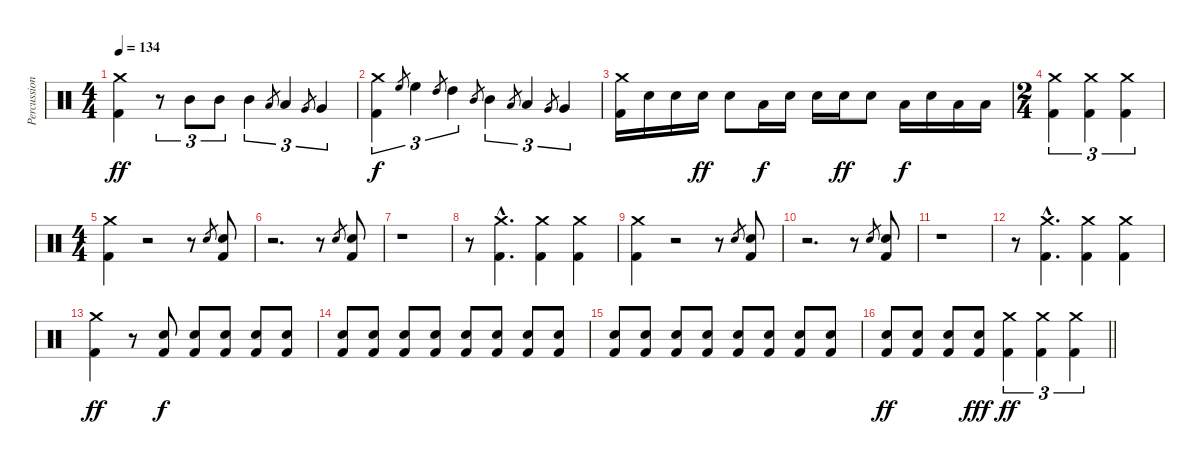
\track ("Percussion" "Percussion") {instrument percussion}
\staff {score}
\articulation defaults
\ts (4 4)
\tempo 134
\clef neutral
\ks c
("Kick (hit) 2" "Crash medium (hit)").4{dy ff} r.8{tu (3 2)} "Mid Tom (hit)".8{tu (3 2)} "Mid Tom (hit)".8{tu (3 2)} "Mid Tom (hit)".4{tu (3 2)} "Low Tom (hit)".8{gr} "Low Tom (hit)".4{tu (3 2)} "Very Low Tom (hit)".8{gr} "Very Low Tom (hit)".4{tu (3 2)} |
("Kick (hit) 2" "Crash medium (hit)").4{tu (3 2) dy f} "High Floor Tom (hit)".8{gr} "High Floor Tom (hit)".4{tu (3 2)} "High Tom (hit)".8{gr} "High Tom (hit)".4{tu (3 2)} "Mid Tom (hit)".8{gr} "Mid Tom (hit)".4{tu (3 2)} "Low Tom (hit)".8{gr} "Low Tom (hit)".4{tu (3 2)} "Very Low Tom (hit)".8{gr} "Very Low Tom (hit)".4{tu (3 2)} |
("Kick (hit) 2" "Crash medium (hit)").16 "Electric Snare (hit)".16 "Electric Snare (hit)".16 "Electric Snare (hit)".16{dy ff} "Electric Snare (hit)".8 "Low Tom (hit)".16{dy f} "Electric Snare (hit)".16 "Electric Snare (hit)".16 "Electric Snare (hit)".16{dy ff} "Electric Snare (hit)".8 "Low Tom (hit)".16{dy f} "Electric Snare (hit)".16 "Low Tom (hit)".16 "Low Tom (hit)".16 |
\ts (2 4)
("Kick (hit) 2" "Crash medium (hit)").4{tu (3 2)} ("Kick (hit) 2" "Crash medium (hit)").4{tu (3 2)} ("Kick (hit) 2" "Crash medium (hit)").4{tu (3 2)} |
\ts (4 4)
("Kick (hit) 2" "Crash medium (hit)").4 r.2 r.8 "Electric Snare (hit)".8{gr} ("Kick (hit) 2" "Electric Snare (hit)").8 |
r.2{d} r.8 "Electric Snare (hit)".8{gr} ("Kick (hit) 2" "Electric Snare (hit)").8 |
r.1 |
r.8 ("Kick (hit) 2"{hac} "Crash medium (hit)"{hac}).4{d} ("Kick (hit) 2" "Crash medium (hit)").4 ("Kick (hit) 2" "Crash medium (hit)").4 |
("Kick (hit) 2" "Crash medium (hit)").4 r.2 r.8 "Electric Snare (hit)".8{gr} ("Kick (hit) 2" "Electric Snare (hit)").8 |
r.2{d} r.8 "Electric Snare (hit)".8{gr} ("Kick (hit) 2" "Electric Snare (hit)").8 |
r.1 |
r.8 ("Kick (hit) 2"{hac} "Crash medium (hit)"{hac}).4{d} ("Kick (hit) 2" "Crash medium (hit)").4 ("Kick (hit) 2" "Crash medium (hit)").4 |
("Kick (hit) 2" "Crash medium (hit)").4{dy ff} r.8 ("Kick (hit) 2" "Electric Snare (hit)").8{dy f} ("Kick (hit) 2" "Electric Snare (hit)").8 ("Kick (hit) 2" "Electric Snare (hit)").8 ("Kick (hit) 2" "Electric Snare (hit)").8 ("Kick (hit) 2" "Electric Snare (hit)").8 |
("Kick (hit) 2" "Electric Snare (hit)").8 ("Kick (hit) 2" "Electric Snare (hit)").8 ("Kick (hit) 2" "Electric Snare (hit)").8 ("Kick (hit) 2" "Electric Snare (hit)").8 ("Kick (hit) 2" "Electric Snare (hit)").8 ("Kick (hit) 2" "Electric Snare (hit)").8 ("Kick (hit) 2" "Electric Snare (hit)").8 ("Kick (hit) 2" "Electric Snare (hit)").8 |
("Kick (hit) 2" "Electric Snare (hit)").8 ("Kick (hit) 2" "Electric Snare (hit)").8 ("Kick (hit) 2" "Electric Snare (hit)").8 ("Kick (hit) 2" "Electric Snare (hit)").8 ("Kick (hit) 2" "Electric Snare (hit)").8 ("Kick (hit) 2" "Electric Snare (hit)").8 ("Kick (hit) 2" "Electric Snare (hit)").8 ("Kick (hit) 2" "Electric Snare (hit)").8 |
\barLineRight lightlight
("Kick (hit) 2" "Electric Snare (hit)").8{dy ff} ("Kick (hit) 2" "Electric Snare (hit)").8 ("Kick (hit) 2" "Electric Snare (hit)").8 ("Kick (hit) 2" "Electric Snare (hit)").8{dy fff} ("Kick (hit) 2" "Crash medium (hit)").4{tu (3 2) dy ff} ("Kick (hit) 2" "Crash medium (hit)").4{tu (3 2)} ("Kick (hit) 2" "Crash medium (hit)").4{tu (3 2)}
